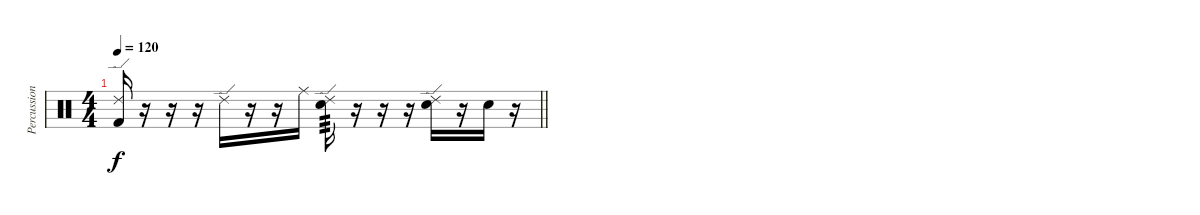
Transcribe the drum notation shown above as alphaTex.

\track ("Percussions" "Percussion") {instrument percussion}
\staff {score}
\articulation defaults
\ts (4 4)
\tempo 120
\clef neutral
\barLineRight lightlight
\ks c
("Ride (edge) 2" "Kick (hit) 2").16{dy f} r.16 r.16 r.16 "Ride (edge) 2".16 r.16 r.16 "Ride (middle)".16 ("Ride (edge) 2" "Snare (hit) 2").16{tp 3} r.16 r.16 r.16 ("Ride (edge) 2" "Snare (hit) 2").16 r.16 "Snare (hit) 2".16 r.16
